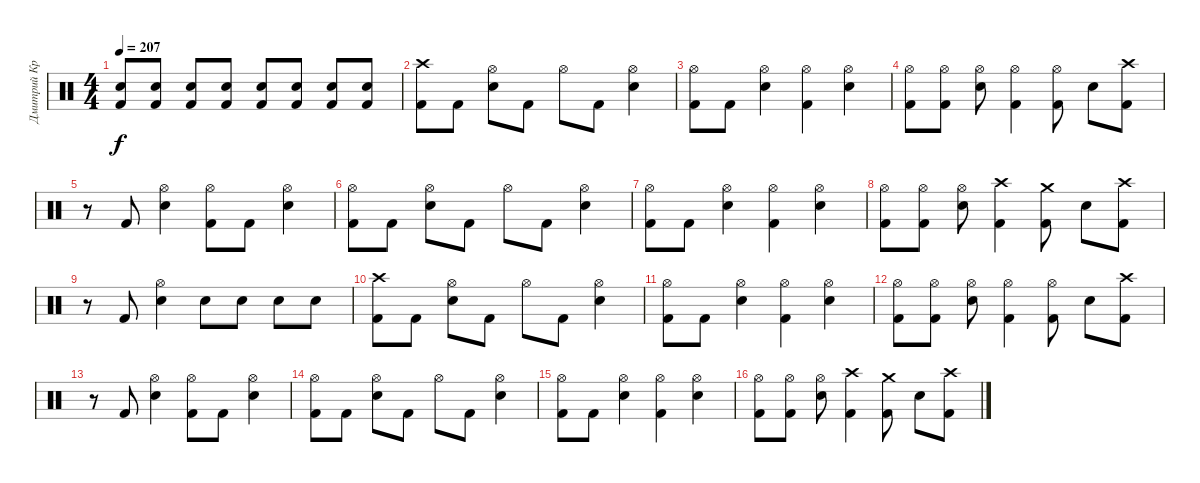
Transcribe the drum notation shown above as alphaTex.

\track ("Дмитрий Кривенков" "Дмитрий Кр") {instrument percussion}
\staff {score}
\articulation defaults
\ts (4 4)
\tempo 207
\clef neutral
\ks c
("Electric Snare (hit)" "Kick (hit) 2").8{dy f} ("Electric Snare (hit)" "Kick (hit) 2").8 ("Electric Snare (hit)" "Kick (hit) 2").8 ("Electric Snare (hit)" "Kick (hit) 2").8 ("Electric Snare (hit)" "Kick (hit) 2").8 ("Electric Snare (hit)" "Kick (hit) 2").8 ("Electric Snare (hit)" "Kick (hit) 2").8 ("Electric Snare (hit)" "Kick (hit) 2").8 |
("Crash high (hit)" "Kick (hit) 2").8 "Kick (hit) 2".8 ("Hi-Hat (open)" "Electric Snare (hit)").8 "Kick (hit) 2".8 "Hi-Hat (open)".8 "Kick (hit) 2".8 ("Hi-Hat (open)" "Electric Snare (hit)").4 |
("Hi-Hat (open)" "Kick (hit) 2").8 "Kick (hit) 2".8 ("Hi-Hat (open)" "Electric Snare (hit)").4 ("Hi-Hat (open)" "Kick (hit) 2").4 ("Hi-Hat (open)" "Electric Snare (hit)").4 |
("Hi-Hat (open)" "Kick (hit) 2").8 ("Hi-Hat (open)" "Kick (hit) 2").8 ("Hi-Hat (open)" "Electric Snare (hit)").8 ("Hi-Hat (open)" "Kick (hit) 2").4 ("Hi-Hat (open)" "Kick (hit) 2").8 "Electric Snare (hit)".8 ("Crash high (hit)" "Kick (hit) 2").8 |
r.8 "Kick (hit) 2".8 ("Hi-Hat (open)" "Electric Snare (hit)").4 ("Hi-Hat (open)" "Kick (hit) 2").8 "Kick (hit) 2".8 ("Hi-Hat (open)" "Electric Snare (hit)").4 |
("Hi-Hat (open)" "Kick (hit) 2").8 "Kick (hit) 2".8 ("Hi-Hat (open)" "Electric Snare (hit)").8 "Kick (hit) 2".8 "Hi-Hat (open)".8 "Kick (hit) 2".8 ("Hi-Hat (open)" "Electric Snare (hit)").4 |
("Hi-Hat (open)" "Kick (hit) 2").8 "Kick (hit) 2".8 ("Hi-Hat (open)" "Electric Snare (hit)").4 ("Hi-Hat (open)" "Kick (hit) 2").4 ("Hi-Hat (open)" "Electric Snare (hit)").4 |
("Hi-Hat (open)" "Kick (hit) 2").8 ("Hi-Hat (open)" "Kick (hit) 2").8 ("Hi-Hat (open)" "Electric Snare (hit)").8 ("Crash high (hit)" "Kick (hit) 2").4 ("Crash medium (hit)" "Kick (hit) 2").8 "Electric Snare (hit)".8 ("Crash high (hit)" "Kick (hit) 2").8 |
r.8 "Kick (hit) 2".8 ("Hi-Hat (open)" "Electric Snare (hit)").4 "Electric Snare (hit)".8 "Electric Snare (hit)".8 "Electric Snare (hit)".8 "Electric Snare (hit)".8 |
("Crash high (hit)" "Kick (hit) 2").8 "Kick (hit) 2".8 ("Hi-Hat (open)" "Electric Snare (hit)").8 "Kick (hit) 2".8 "Hi-Hat (open)".8 "Kick (hit) 2".8 ("Hi-Hat (open)" "Electric Snare (hit)").4 |
("Hi-Hat (open)" "Kick (hit) 2").8 "Kick (hit) 2".8 ("Hi-Hat (open)" "Electric Snare (hit)").4 ("Hi-Hat (open)" "Kick (hit) 2").4 ("Hi-Hat (open)" "Electric Snare (hit)").4 |
("Hi-Hat (open)" "Kick (hit) 2").8 ("Hi-Hat (open)" "Kick (hit) 2").8 ("Hi-Hat (open)" "Electric Snare (hit)").8 ("Hi-Hat (open)" "Kick (hit) 2").4 ("Hi-Hat (open)" "Kick (hit) 2").8 "Electric Snare (hit)".8 ("Crash high (hit)" "Kick (hit) 2").8 |
r.8 "Kick (hit) 2".8 ("Hi-Hat (open)" "Electric Snare (hit)").4 ("Hi-Hat (open)" "Kick (hit) 2").8 "Kick (hit) 2".8 ("Hi-Hat (open)" "Electric Snare (hit)").4 |
("Hi-Hat (open)" "Kick (hit) 2").8 "Kick (hit) 2".8 ("Hi-Hat (open)" "Electric Snare (hit)").8 "Kick (hit) 2".8 "Hi-Hat (open)".8 "Kick (hit) 2".8 ("Hi-Hat (open)" "Electric Snare (hit)").4 |
("Hi-Hat (open)" "Kick (hit) 2").8 "Kick (hit) 2".8 ("Hi-Hat (open)" "Electric Snare (hit)").4 ("Hi-Hat (open)" "Kick (hit) 2").4 ("Hi-Hat (open)" "Electric Snare (hit)").4 |
("Hi-Hat (open)" "Kick (hit) 2").8 ("Hi-Hat (open)" "Kick (hit) 2").8 ("Hi-Hat (open)" "Electric Snare (hit)").8 ("Crash high (hit)" "Kick (hit) 2").4 ("Crash medium (hit)" "Kick (hit) 2").8 "Electric Snare (hit)".8 ("Crash high (hit)" "Kick (hit) 2").8
